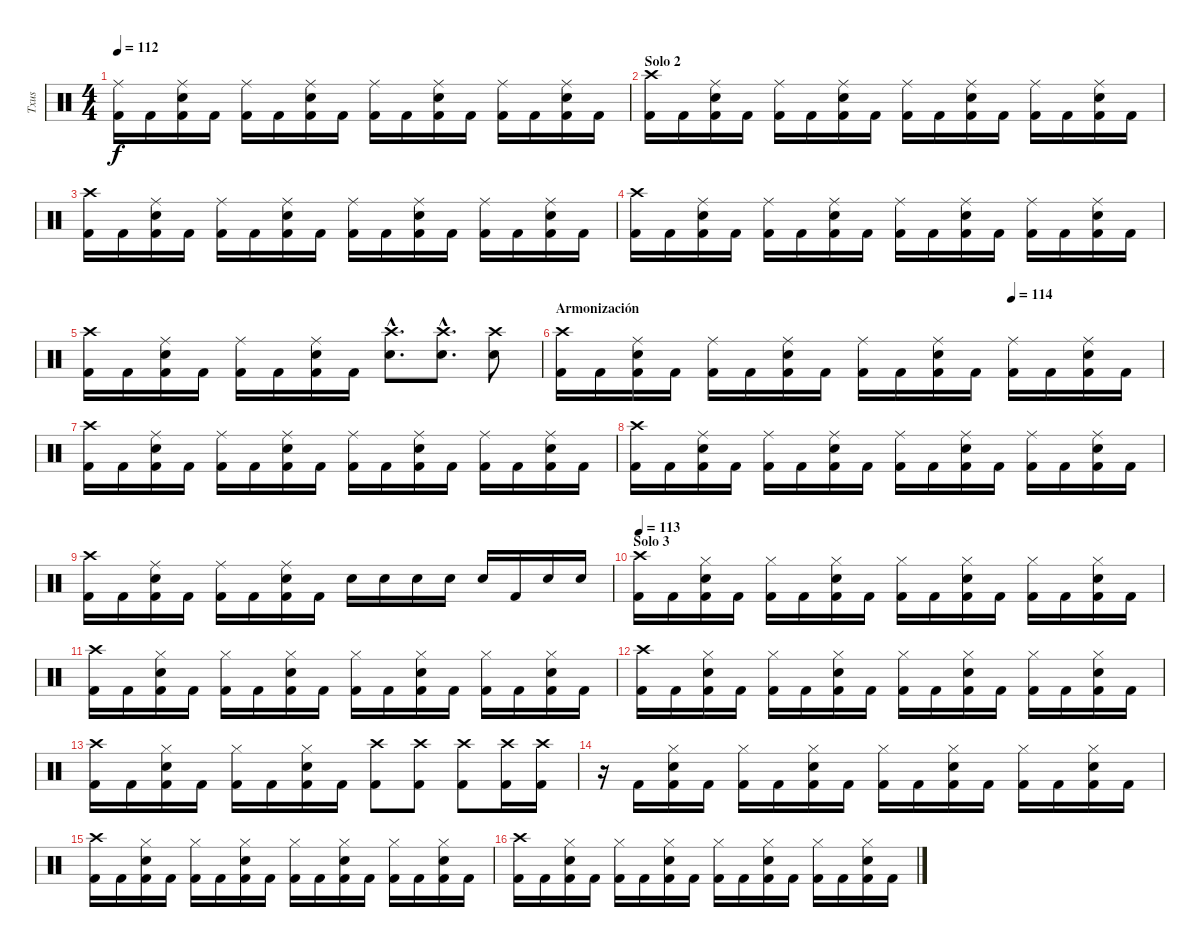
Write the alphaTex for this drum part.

\track ("Txus" "Txus") {instrument percussion}
\staff {score}
\articulation defaults
\ts (4 4)
\tempo 112
\clef neutral
\ks c
("Kick (hit) 2" "Ride (middle)").16{dy f} "Kick (hit) 2".16 ("Kick (hit) 2" "Ride (middle)" "Electric Snare (hit)").16 "Kick (hit) 2".16 ("Kick (hit) 2" "Ride (middle)").16 "Kick (hit) 2".16 ("Kick (hit) 2" "Ride (middle)" "Electric Snare (hit)").16 "Kick (hit) 2".16 ("Kick (hit) 2" "Ride (middle)").16 "Kick (hit) 2".16 ("Kick (hit) 2" "Ride (middle)" "Electric Snare (hit)").16 "Kick (hit) 2".16 ("Kick (hit) 2" "Ride (middle)").16 "Kick (hit) 2".16 ("Kick (hit) 2" "Ride (middle)" "Electric Snare (hit)").16 "Kick (hit) 2".16 |
\section ("" "Solo 2")
("Kick (hit) 2" "Crash high (hit)").16 "Kick (hit) 2".16 ("Kick (hit) 2" "Ride (middle)" "Electric Snare (hit)").16 "Kick (hit) 2".16 ("Kick (hit) 2" "Ride (middle)").16 "Kick (hit) 2".16 ("Kick (hit) 2" "Ride (middle)" "Electric Snare (hit)").16 "Kick (hit) 2".16 ("Kick (hit) 2" "Ride (middle)").16 "Kick (hit) 2".16 ("Kick (hit) 2" "Ride (middle)" "Electric Snare (hit)").16 "Kick (hit) 2".16 ("Kick (hit) 2" "Ride (middle)").16 "Kick (hit) 2".16 ("Kick (hit) 2" "Ride (middle)" "Electric Snare (hit)").16 "Kick (hit) 2".16 |
("Kick (hit) 2" "Crash high (hit)").16 "Kick (hit) 2".16 ("Kick (hit) 2" "Ride (middle)" "Electric Snare (hit)").16 "Kick (hit) 2".16 ("Kick (hit) 2" "Ride (middle)").16 "Kick (hit) 2".16 ("Kick (hit) 2" "Ride (middle)" "Electric Snare (hit)").16 "Kick (hit) 2".16 ("Kick (hit) 2" "Ride (middle)").16 "Kick (hit) 2".16 ("Kick (hit) 2" "Ride (middle)" "Electric Snare (hit)").16 "Kick (hit) 2".16 ("Kick (hit) 2" "Ride (middle)").16 "Kick (hit) 2".16 ("Kick (hit) 2" "Ride (middle)" "Electric Snare (hit)").16 "Kick (hit) 2".16 |
("Kick (hit) 2" "Crash high (hit)").16 "Kick (hit) 2".16 ("Kick (hit) 2" "Ride (middle)" "Electric Snare (hit)").16 "Kick (hit) 2".16 ("Kick (hit) 2" "Ride (middle)").16 "Kick (hit) 2".16 ("Kick (hit) 2" "Ride (middle)" "Electric Snare (hit)").16 "Kick (hit) 2".16 ("Kick (hit) 2" "Ride (middle)").16 "Kick (hit) 2".16 ("Kick (hit) 2" "Ride (middle)" "Electric Snare (hit)").16 "Kick (hit) 2".16 ("Kick (hit) 2" "Ride (middle)").16 "Kick (hit) 2".16 ("Kick (hit) 2" "Ride (middle)" "Electric Snare (hit)").16 "Kick (hit) 2".16 |
("Kick (hit) 2" "Crash high (hit)").16 "Kick (hit) 2".16 ("Kick (hit) 2" "Ride (middle)" "Electric Snare (hit)").16 "Kick (hit) 2".16 ("Kick (hit) 2" "Ride (middle)").16 "Kick (hit) 2".16 ("Kick (hit) 2" "Ride (middle)" "Electric Snare (hit)").16 "Kick (hit) 2".16 ("Electric Snare (hit)"{hac} "Crash high (hit)"{hac}).8{d} ("Electric Snare (hit)"{hac} "Crash high (hit)"{hac}).8{d} ("Electric Snare (hit)" "Crash high (hit)").8 |
\section ("" "Armonización")
\tempo (114 0.75)
("Kick (hit) 2" "Crash high (hit)").16 "Kick (hit) 2".16 ("Kick (hit) 2" "Ride (middle)" "Electric Snare (hit)").16 "Kick (hit) 2".16 ("Kick (hit) 2" "Ride (middle)").16 "Kick (hit) 2".16 ("Kick (hit) 2" "Ride (middle)" "Electric Snare (hit)").16 "Kick (hit) 2".16 ("Kick (hit) 2" "Ride (middle)").16 "Kick (hit) 2".16 ("Kick (hit) 2" "Ride (middle)" "Electric Snare (hit)").16 "Kick (hit) 2".16 ("Kick (hit) 2" "Ride (middle)").16 "Kick (hit) 2".16 ("Kick (hit) 2" "Ride (middle)" "Electric Snare (hit)").16 "Kick (hit) 2".16 |
("Kick (hit) 2" "Crash high (hit)").16 "Kick (hit) 2".16 ("Kick (hit) 2" "Ride (middle)" "Electric Snare (hit)").16 "Kick (hit) 2".16 ("Kick (hit) 2" "Ride (middle)").16 "Kick (hit) 2".16 ("Kick (hit) 2" "Ride (middle)" "Electric Snare (hit)").16 "Kick (hit) 2".16 ("Kick (hit) 2" "Ride (middle)").16 "Kick (hit) 2".16 ("Kick (hit) 2" "Ride (middle)" "Electric Snare (hit)").16 "Kick (hit) 2".16 ("Kick (hit) 2" "Ride (middle)").16 "Kick (hit) 2".16 ("Kick (hit) 2" "Ride (middle)" "Electric Snare (hit)").16 "Kick (hit) 2".16 |
("Kick (hit) 2" "Crash high (hit)").16 "Kick (hit) 2".16 ("Kick (hit) 2" "Ride (middle)" "Electric Snare (hit)").16 "Kick (hit) 2".16 ("Kick (hit) 2" "Ride (middle)").16 "Kick (hit) 2".16 ("Kick (hit) 2" "Ride (middle)" "Electric Snare (hit)").16 "Kick (hit) 2".16 ("Kick (hit) 2" "Ride (middle)").16 "Kick (hit) 2".16 ("Kick (hit) 2" "Ride (middle)" "Electric Snare (hit)").16 "Kick (hit) 2".16 ("Kick (hit) 2" "Ride (middle)").16 "Kick (hit) 2".16 ("Kick (hit) 2" "Ride (middle)" "Electric Snare (hit)").16 "Kick (hit) 2".16 |
("Kick (hit) 2" "Crash high (hit)").16 "Kick (hit) 2".16 ("Kick (hit) 2" "Ride (middle)" "Electric Snare (hit)").16 "Kick (hit) 2".16 ("Kick (hit) 2" "Ride (middle)").16 "Kick (hit) 2".16 ("Kick (hit) 2" "Ride (middle)" "Electric Snare (hit)").16 "Kick (hit) 2".16 "Electric Snare (hit)".16 "Electric Snare (hit)".16 "Electric Snare (hit)".16 "Electric Snare (hit)".16 "Electric Snare (hit)".16 "Kick (hit) 2".16 "Electric Snare (hit)".16 "Electric Snare (hit)".16 |
\section ("" "Solo 3")
\tempo 113
("Kick (hit) 2" "Crash high (hit)").16 "Kick (hit) 2".16 ("Kick (hit) 2" "Hi-Hat (closed)" "Electric Snare (hit)").16 "Kick (hit) 2".16 ("Kick (hit) 2" "Hi-Hat (closed)").16 "Kick (hit) 2".16 ("Kick (hit) 2" "Hi-Hat (closed)" "Electric Snare (hit)").16 "Kick (hit) 2".16 ("Kick (hit) 2" "Hi-Hat (closed)").16 "Kick (hit) 2".16 ("Kick (hit) 2" "Hi-Hat (closed)" "Electric Snare (hit)").16 "Kick (hit) 2".16 ("Kick (hit) 2" "Hi-Hat (closed)").16 "Kick (hit) 2".16 ("Kick (hit) 2" "Hi-Hat (closed)" "Electric Snare (hit)").16 "Kick (hit) 2".16 |
("Kick (hit) 2" "Crash high (hit)").16 "Kick (hit) 2".16 ("Kick (hit) 2" "Hi-Hat (closed)" "Electric Snare (hit)").16 "Kick (hit) 2".16 ("Kick (hit) 2" "Hi-Hat (closed)").16 "Kick (hit) 2".16 ("Kick (hit) 2" "Hi-Hat (closed)" "Electric Snare (hit)").16 "Kick (hit) 2".16 ("Kick (hit) 2" "Hi-Hat (closed)").16 "Kick (hit) 2".16 ("Kick (hit) 2" "Hi-Hat (closed)" "Electric Snare (hit)").16 "Kick (hit) 2".16 ("Kick (hit) 2" "Hi-Hat (closed)").16 "Kick (hit) 2".16 ("Kick (hit) 2" "Hi-Hat (closed)" "Electric Snare (hit)").16 "Kick (hit) 2".16 |
("Kick (hit) 2" "Crash high (hit)").16 "Kick (hit) 2".16 ("Kick (hit) 2" "Hi-Hat (closed)" "Electric Snare (hit)").16 "Kick (hit) 2".16 ("Kick (hit) 2" "Hi-Hat (closed)").16 "Kick (hit) 2".16 ("Kick (hit) 2" "Hi-Hat (closed)" "Electric Snare (hit)").16 "Kick (hit) 2".16 ("Kick (hit) 2" "Hi-Hat (closed)").16 "Kick (hit) 2".16 ("Kick (hit) 2" "Hi-Hat (closed)" "Electric Snare (hit)").16 "Kick (hit) 2".16 ("Kick (hit) 2" "Hi-Hat (closed)").16 "Kick (hit) 2".16 ("Kick (hit) 2" "Hi-Hat (closed)" "Electric Snare (hit)").16 "Kick (hit) 2".16 |
("Kick (hit) 2" "Crash high (hit)").16 "Kick (hit) 2".16 ("Kick (hit) 2" "Hi-Hat (closed)" "Electric Snare (hit)").16 "Kick (hit) 2".16 ("Kick (hit) 2" "Hi-Hat (closed)").16 "Kick (hit) 2".16 ("Kick (hit) 2" "Hi-Hat (closed)" "Electric Snare (hit)").16 "Kick (hit) 2".16 ("Kick (hit) 2" "Crash high (hit)").8 ("Kick (hit) 2" "Crash high (hit)").8 ("Kick (hit) 2" "Crash high (hit)").8 ("Kick (hit) 2" "Crash high (hit)").16 ("Kick (hit) 2" "Crash high (hit)").16 |
r.16 "Kick (hit) 2".16 ("Kick (hit) 2" "Hi-Hat (closed)" "Electric Snare (hit)").16 "Kick (hit) 2".16 ("Kick (hit) 2" "Hi-Hat (closed)").16 "Kick (hit) 2".16 ("Kick (hit) 2" "Hi-Hat (closed)" "Electric Snare (hit)").16 "Kick (hit) 2".16 ("Kick (hit) 2" "Hi-Hat (closed)").16 "Kick (hit) 2".16 ("Kick (hit) 2" "Hi-Hat (closed)" "Electric Snare (hit)").16 "Kick (hit) 2".16 ("Kick (hit) 2" "Hi-Hat (closed)").16 "Kick (hit) 2".16 ("Kick (hit) 2" "Hi-Hat (closed)" "Electric Snare (hit)").16 "Kick (hit) 2".16 |
("Kick (hit) 2" "Crash high (hit)").16 "Kick (hit) 2".16 ("Kick (hit) 2" "Hi-Hat (closed)" "Electric Snare (hit)").16 "Kick (hit) 2".16 ("Kick (hit) 2" "Hi-Hat (closed)").16 "Kick (hit) 2".16 ("Kick (hit) 2" "Hi-Hat (closed)" "Electric Snare (hit)").16 "Kick (hit) 2".16 ("Kick (hit) 2" "Hi-Hat (closed)").16 "Kick (hit) 2".16 ("Kick (hit) 2" "Hi-Hat (closed)" "Electric Snare (hit)").16 "Kick (hit) 2".16 ("Kick (hit) 2" "Hi-Hat (closed)").16 "Kick (hit) 2".16 ("Kick (hit) 2" "Hi-Hat (closed)" "Electric Snare (hit)").16 "Kick (hit) 2".16 |
("Kick (hit) 2" "Crash high (hit)").16 "Kick (hit) 2".16 ("Kick (hit) 2" "Hi-Hat (closed)" "Electric Snare (hit)").16 "Kick (hit) 2".16 ("Kick (hit) 2" "Hi-Hat (closed)").16 "Kick (hit) 2".16 ("Kick (hit) 2" "Hi-Hat (closed)" "Electric Snare (hit)").16 "Kick (hit) 2".16 ("Kick (hit) 2" "Hi-Hat (closed)").16 "Kick (hit) 2".16 ("Kick (hit) 2" "Hi-Hat (closed)" "Electric Snare (hit)").16 "Kick (hit) 2".16 ("Kick (hit) 2" "Hi-Hat (closed)").16 "Kick (hit) 2".16 ("Kick (hit) 2" "Hi-Hat (closed)" "Electric Snare (hit)").16 "Kick (hit) 2".16
